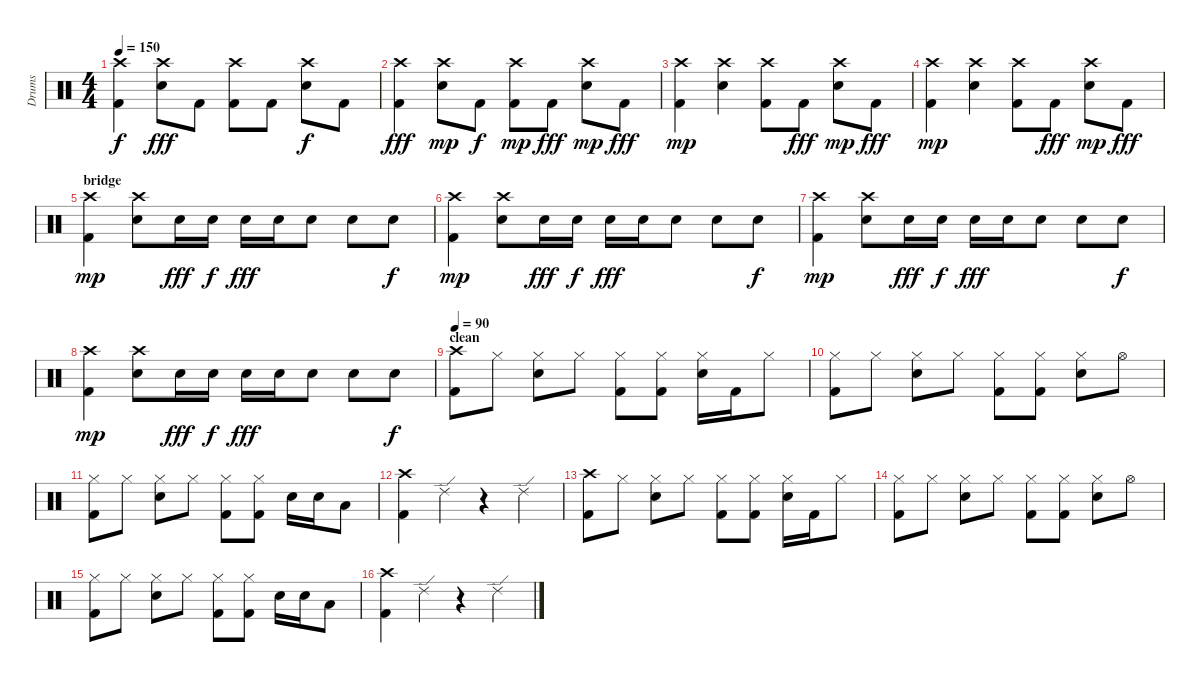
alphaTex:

\track ("Drums" "Drums") {instrument percussion}
\staff {score}
\articulation defaults
\ts (4 4)
\tempo 150
\clef neutral
\ks c
("Kick (hit) 2" "Crash high (hit)").4{dy f} ("Electric Snare (hit)" "Crash high (hit)").8{dy fff} "Kick (hit) 2".8 ("Kick (hit) 2" "Crash high (hit)").8 "Kick (hit) 2".8 ("Electric Snare (hit)" "Crash high (hit)").8{dy f} "Kick (hit) 2".8 |
("Kick (hit) 2" "Crash high (hit)").4{dy fff} ("Electric Snare (hit)" "Crash high (hit)").8{dy mp} "Kick (hit) 2".8{dy f} ("Kick (hit) 2" "Crash high (hit)").8{dy mp} "Kick (hit) 2".8{dy fff} ("Electric Snare (hit)" "Crash high (hit)").8{dy mp} "Kick (hit) 2".8{dy fff} |
("Kick (hit) 2" "Crash high (hit)").4{dy mp} ("Electric Snare (hit)" "Crash high (hit)").4 ("Kick (hit) 2" "Crash high (hit)").8 "Kick (hit) 2".8{dy fff} ("Electric Snare (hit)" "Crash high (hit)").8{dy mp} "Kick (hit) 2".8{dy fff} |
("Kick (hit) 2" "Crash high (hit)").4{dy mp} ("Electric Snare (hit)" "Crash high (hit)").4 ("Kick (hit) 2" "Crash high (hit)").8 "Kick (hit) 2".8{dy fff} ("Electric Snare (hit)" "Crash high (hit)").8{dy mp} "Kick (hit) 2".8{dy fff} |
\section ("" "bridge")
("Kick (hit) 2" "Crash high (hit)").4{dy mp} ("Electric Snare (hit)" "Crash high (hit)").8 "Electric Snare (hit)".16{dy fff} "Electric Snare (hit)".16{dy f} "Electric Snare (hit)".16{dy fff} "Electric Snare (hit)".16 "Electric Snare (hit)".8 "Electric Snare (hit)".8 "Electric Snare (hit)".8{dy f} |
("Kick (hit) 2" "Crash high (hit)").4{dy mp} ("Electric Snare (hit)" "Crash high (hit)").8 "Electric Snare (hit)".16{dy fff} "Electric Snare (hit)".16{dy f} "Electric Snare (hit)".16{dy fff} "Electric Snare (hit)".16 "Electric Snare (hit)".8 "Electric Snare (hit)".8 "Electric Snare (hit)".8{dy f} |
("Kick (hit) 2" "Crash high (hit)").4{dy mp} ("Electric Snare (hit)" "Crash high (hit)").8 "Electric Snare (hit)".16{dy fff} "Electric Snare (hit)".16{dy f} "Electric Snare (hit)".16{dy fff} "Electric Snare (hit)".16 "Electric Snare (hit)".8 "Electric Snare (hit)".8 "Electric Snare (hit)".8{dy f} |
("Kick (hit) 2" "Crash high (hit)").4{dy mp} ("Electric Snare (hit)" "Crash high (hit)").8 "Electric Snare (hit)".16{dy fff} "Electric Snare (hit)".16{dy f} "Electric Snare (hit)".16{dy fff} "Electric Snare (hit)".16 "Electric Snare (hit)".8 "Electric Snare (hit)".8 "Electric Snare (hit)".8{dy f} |
\section ("" "clean")
\tempo 90
("Crash high (hit)" "Kick (hit) 2").8 "Hi-Hat (closed)".8 ("Hi-Hat (closed)" "Snare (hit) 2").8 "Hi-Hat (closed)".8 ("Hi-Hat (closed)" "Kick (hit) 2").8 ("Hi-Hat (closed)" "Kick (hit) 2").8 ("Hi-Hat (closed)" "Snare (hit) 2").16 "Kick (hit) 2".16 "Hi-Hat (closed)".8 |
("Hi-Hat (closed)" "Kick (hit) 2").8 "Hi-Hat (closed)".8 ("Hi-Hat (closed)" "Snare (hit) 2").8 "Hi-Hat (closed)".8 ("Hi-Hat (closed)" "Kick (hit) 2").8 ("Hi-Hat (closed)" "Kick (hit) 2").8 ("Hi-Hat (closed)" "Snare (hit) 2").8 "Hi-Hat (open)".8 |
("Hi-Hat (closed)" "Kick (hit) 2").8 "Hi-Hat (closed)".8 ("Hi-Hat (closed)" "Snare (hit) 2").8 "Hi-Hat (closed)".8 ("Hi-Hat (closed)" "Kick (hit) 2").8 ("Hi-Hat (closed)" "Kick (hit) 2").8 "Snare (hit) 2".16 "Snare (hit) 2".16 "Low Tom (hit)".8 |
("Crash high (hit)" "Kick (hit) 2").4 "Ride (edge) 2".4 r.4 "Ride (edge) 2".4 |
("Crash high (hit)" "Kick (hit) 2").8 "Hi-Hat (closed)".8 ("Hi-Hat (closed)" "Snare (hit) 2").8 "Hi-Hat (closed)".8 ("Hi-Hat (closed)" "Kick (hit) 2").8 ("Hi-Hat (closed)" "Kick (hit) 2").8 ("Hi-Hat (closed)" "Snare (hit) 2").16 "Kick (hit) 2".16 "Hi-Hat (closed)".8 |
("Hi-Hat (closed)" "Kick (hit) 2").8 "Hi-Hat (closed)".8 ("Hi-Hat (closed)" "Snare (hit) 2").8 "Hi-Hat (closed)".8 ("Hi-Hat (closed)" "Kick (hit) 2").8 ("Hi-Hat (closed)" "Kick (hit) 2").8 ("Hi-Hat (closed)" "Snare (hit) 2").8 "Hi-Hat (open)".8 |
("Hi-Hat (closed)" "Kick (hit) 2").8 "Hi-Hat (closed)".8 ("Hi-Hat (closed)" "Snare (hit) 2").8 "Hi-Hat (closed)".8 ("Hi-Hat (closed)" "Kick (hit) 2").8 ("Hi-Hat (closed)" "Kick (hit) 2").8 "Snare (hit) 2".16 "Snare (hit) 2".16 "Low Tom (hit)".8 |
("Crash high (hit)" "Kick (hit) 2").4 "Ride (edge) 2".4 r.4 "Ride (edge) 2".4
